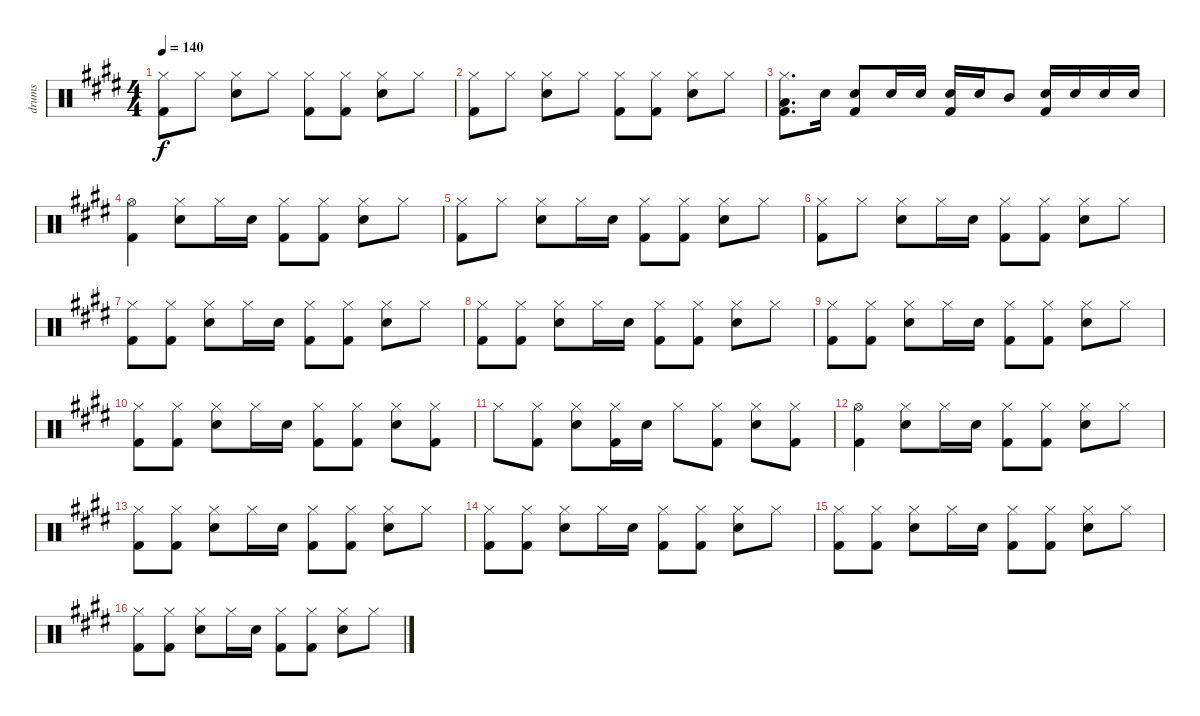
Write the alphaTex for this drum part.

\track ("drums" "drums") {instrument percussion}
\staff {score}
\articulation defaults
\ts (4 4)
\tempo 140
\clef neutral
\ks e
("Hi-Hat (closed)" "Kick (hit) 2").8{dy f} "Hi-Hat (closed)".8 ("Hi-Hat (closed)" "Snare (hit) 2").8 "Hi-Hat (closed)".8 ("Hi-Hat (closed)" "Kick (hit) 2").8 ("Hi-Hat (closed)" "Kick (hit) 2").8 ("Hi-Hat (closed)" "Snare (hit) 2").8 "Hi-Hat (closed)".8 |
("Hi-Hat (closed)" "Kick (hit) 2").8 "Hi-Hat (closed)".8 ("Hi-Hat (closed)" "Snare (hit) 2").8 "Hi-Hat (closed)".8 ("Hi-Hat (closed)" "Kick (hit) 2").8 ("Hi-Hat (closed)" "Kick (hit) 2").8 ("Hi-Hat (closed)" "Snare (hit) 2").8 "Hi-Hat (closed)".8 |
("Hi-Hat (closed)" "Low Floor Tom (hit)" "Kick (hit) 2").8{d} "Snare (hit) 2".16 ("Snare (hit) 2" "Kick (hit) 2").8 "Snare (hit) 2".16 "Snare (hit) 2".16 ("Snare (hit) 2" "Kick (hit) 2").16 "Snare (hit) 2".16 "Mid Tom (hit)".8 ("Snare (hit) 2" "Kick (hit) 2").16 "Snare (hit) 2".16 "Snare (hit) 2".16 "Snare (hit) 2".16 |
("Hi-Hat (open)" "Kick (hit) 2").4 ("Hi-Hat (closed)" "Snare (hit) 2").8 "Hi-Hat (closed)".16 "Snare (hit) 2".16 ("Hi-Hat (closed)" "Kick (hit) 2").8 ("Hi-Hat (closed)" "Kick (hit) 2").8 ("Hi-Hat (closed)" "Snare (hit) 2").8 "Hi-Hat (closed)".8 |
("Hi-Hat (closed)" "Kick (hit) 2").8 "Hi-Hat (closed)".8 ("Hi-Hat (closed)" "Snare (hit) 2").8 "Hi-Hat (closed)".16 "Snare (hit) 2".16 ("Hi-Hat (closed)" "Kick (hit) 2").8 ("Hi-Hat (closed)" "Kick (hit) 2").8 ("Hi-Hat (closed)" "Snare (hit) 2").8 "Hi-Hat (closed)".8 |
("Hi-Hat (closed)" "Kick (hit) 2").8 "Hi-Hat (closed)".8 ("Hi-Hat (closed)" "Snare (hit) 2").8 "Hi-Hat (closed)".16 "Snare (hit) 2".16 ("Hi-Hat (closed)" "Kick (hit) 2").8 ("Hi-Hat (closed)" "Kick (hit) 2").8 ("Hi-Hat (closed)" "Snare (hit) 2").8 "Hi-Hat (closed)".8 |
("Hi-Hat (closed)" "Kick (hit) 2").8 ("Hi-Hat (closed)" "Kick (hit) 2").8 ("Hi-Hat (closed)" "Snare (hit) 2").8 "Hi-Hat (closed)".16 "Snare (hit) 2".16 ("Hi-Hat (closed)" "Kick (hit) 2").8 ("Hi-Hat (closed)" "Kick (hit) 2").8 ("Hi-Hat (closed)" "Snare (hit) 2").8 "Hi-Hat (closed)".8 |
("Hi-Hat (closed)" "Kick (hit) 2").8 ("Hi-Hat (closed)" "Kick (hit) 2").8 ("Hi-Hat (closed)" "Snare (hit) 2").8 "Hi-Hat (closed)".16 "Snare (hit) 2".16 ("Hi-Hat (closed)" "Kick (hit) 2").8 ("Hi-Hat (closed)" "Kick (hit) 2").8 ("Hi-Hat (closed)" "Snare (hit) 2").8 "Hi-Hat (closed)".8 |
("Hi-Hat (closed)" "Kick (hit) 2").8 ("Hi-Hat (closed)" "Kick (hit) 2").8 ("Hi-Hat (closed)" "Snare (hit) 2").8 "Hi-Hat (closed)".16 "Snare (hit) 2".16 ("Hi-Hat (closed)" "Kick (hit) 2").8 ("Hi-Hat (closed)" "Kick (hit) 2").8 ("Hi-Hat (closed)" "Snare (hit) 2").8 "Hi-Hat (closed)".8 |
("Hi-Hat (closed)" "Kick (hit) 2").8 ("Hi-Hat (closed)" "Kick (hit) 2").8 ("Hi-Hat (closed)" "Snare (hit) 2").8 "Hi-Hat (closed)".16 "Snare (hit) 2".16 ("Hi-Hat (closed)" "Kick (hit) 2").8 ("Hi-Hat (closed)" "Kick (hit) 2").8 ("Hi-Hat (closed)" "Snare (hit) 2").8 ("Hi-Hat (closed)" "Kick (hit) 2").8 |
"Hi-Hat (closed)".8 ("Hi-Hat (closed)" "Kick (hit) 2").8 ("Hi-Hat (closed)" "Snare (hit) 2").8 ("Hi-Hat (closed)" "Kick (hit) 2").16 "Snare (hit) 2".16 "Hi-Hat (closed)".8 ("Hi-Hat (closed)" "Kick (hit) 2").8 ("Hi-Hat (closed)" "Snare (hit) 2").8 ("Hi-Hat (closed)" "Kick (hit) 2").8 |
("Hi-Hat (open)" "Kick (hit) 2").4 ("Hi-Hat (closed)" "Snare (hit) 2").8 "Hi-Hat (closed)".16 "Snare (hit) 2".16 ("Hi-Hat (closed)" "Kick (hit) 2").8 ("Hi-Hat (closed)" "Kick (hit) 2").8 ("Hi-Hat (closed)" "Snare (hit) 2").8 "Hi-Hat (closed)".8 |
("Hi-Hat (closed)" "Kick (hit) 2").8 ("Hi-Hat (closed)" "Kick (hit) 2").8 ("Hi-Hat (closed)" "Snare (hit) 2").8 "Hi-Hat (closed)".16 "Snare (hit) 2".16 ("Hi-Hat (closed)" "Kick (hit) 2").8 ("Hi-Hat (closed)" "Kick (hit) 2").8 ("Hi-Hat (closed)" "Snare (hit) 2").8 "Hi-Hat (closed)".8 |
("Hi-Hat (closed)" "Kick (hit) 2").8 ("Hi-Hat (closed)" "Kick (hit) 2").8 ("Hi-Hat (closed)" "Snare (hit) 2").8 "Hi-Hat (closed)".16 "Snare (hit) 2".16 ("Hi-Hat (closed)" "Kick (hit) 2").8 ("Hi-Hat (closed)" "Kick (hit) 2").8 ("Hi-Hat (closed)" "Snare (hit) 2").8 "Hi-Hat (closed)".8 |
("Hi-Hat (closed)" "Kick (hit) 2").8 ("Hi-Hat (closed)" "Kick (hit) 2").8 ("Hi-Hat (closed)" "Snare (hit) 2").8 "Hi-Hat (closed)".16 "Snare (hit) 2".16 ("Hi-Hat (closed)" "Kick (hit) 2").8 ("Hi-Hat (closed)" "Kick (hit) 2").8 ("Hi-Hat (closed)" "Snare (hit) 2").8 "Hi-Hat (closed)".8 |
("Hi-Hat (closed)" "Kick (hit) 2").8 ("Hi-Hat (closed)" "Kick (hit) 2").8 ("Hi-Hat (closed)" "Snare (hit) 2").8 "Hi-Hat (closed)".16 "Snare (hit) 2".16 ("Hi-Hat (closed)" "Kick (hit) 2").8 ("Hi-Hat (closed)" "Kick (hit) 2").8 ("Hi-Hat (closed)" "Snare (hit) 2").8 "Hi-Hat (closed)".8
